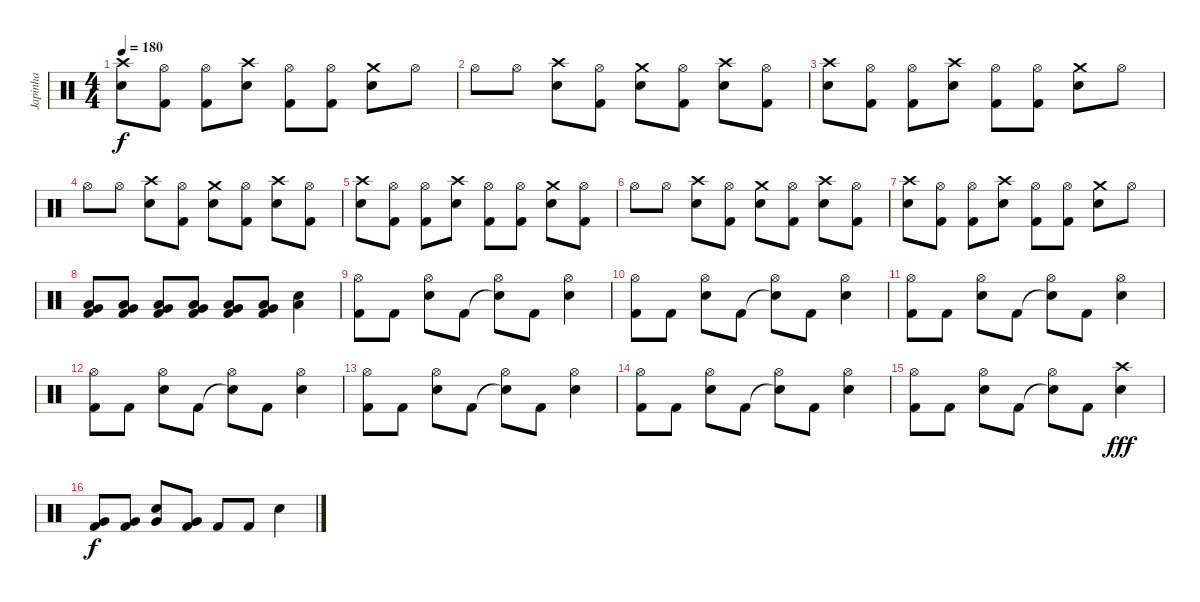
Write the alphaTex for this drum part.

\track ("Japinha" "Japinha") {instrument percussion}
\staff {score}
\articulation defaults
\ts (4 4)
\tempo 180
\clef neutral
\ks c
("Snare (hit) 2" "Crash high (hit)").8{dy f} ("Kick (hit) 2" "Hi-Hat (open)").8 ("Kick (hit) 2" "Hi-Hat (open)").8 ("Snare (hit) 2" "Crash high (hit)").8 ("Kick (hit) 2" "Hi-Hat (open)").8 ("Kick (hit) 2" "Hi-Hat (open)").8 ("Snare (hit) 2" "Crash medium (hit)").8 "Hi-Hat (open)".8 |
"Hi-Hat (open)".8 "Hi-Hat (open)".8 ("Snare (hit) 2" "Crash high (hit)").8 ("Kick (hit) 2" "Hi-Hat (open)").8 ("Snare (hit) 2" "Crash medium (hit)").8 ("Kick (hit) 2" "Hi-Hat (open)").8 ("Snare (hit) 2" "Crash high (hit)").8 ("Kick (hit) 2" "Hi-Hat (open)").8 |
("Snare (hit) 2" "Crash high (hit)").8 ("Kick (hit) 2" "Hi-Hat (open)").8 ("Kick (hit) 2" "Hi-Hat (open)").8 ("Snare (hit) 2" "Crash high (hit)").8 ("Kick (hit) 2" "Hi-Hat (open)").8 ("Kick (hit) 2" "Hi-Hat (open)").8 ("Snare (hit) 2" "Crash medium (hit)").8 "Hi-Hat (open)".8 |
"Hi-Hat (open)".8 "Hi-Hat (open)".8 ("Snare (hit) 2" "Crash high (hit)").8 ("Kick (hit) 2" "Hi-Hat (open)").8 ("Snare (hit) 2" "Crash medium (hit)").8 ("Kick (hit) 2" "Hi-Hat (open)").8 ("Snare (hit) 2" "Crash high (hit)").8 ("Kick (hit) 2" "Hi-Hat (open)").8 |
("Snare (hit) 2" "Crash high (hit)").8 ("Kick (hit) 2" "Hi-Hat (open)").8 ("Kick (hit) 2" "Hi-Hat (open)").8 ("Snare (hit) 2" "Crash high (hit)").8 ("Kick (hit) 2" "Hi-Hat (open)").8 ("Kick (hit) 2" "Hi-Hat (open)").8 ("Snare (hit) 2" "Crash medium (hit)").8 ("Kick (hit) 2" "Hi-Hat (open)").8 |
"Hi-Hat (open)".8 "Hi-Hat (open)".8 ("Snare (hit) 2" "Crash high (hit)").8 ("Kick (hit) 2" "Hi-Hat (open)").8 ("Snare (hit) 2" "Crash medium (hit)").8 ("Kick (hit) 2" "Hi-Hat (open)").8 ("Snare (hit) 2" "Crash high (hit)").8 ("Kick (hit) 2" "Hi-Hat (open)").8 |
("Snare (hit) 2" "Crash high (hit)").8 ("Kick (hit) 2" "Hi-Hat (open)").8 ("Kick (hit) 2" "Hi-Hat (open)").8 ("Snare (hit) 2" "Crash high (hit)").8 ("Kick (hit) 2" "Hi-Hat (open)").8 ("Kick (hit) 2" "Hi-Hat (open)").8 ("Snare (hit) 2" "Crash medium (hit)").8 "Hi-Hat (open)".8 |
("Kick (hit) 2" "Low Floor Tom (hit)" "Very Low Tom (hit)").8 ("Kick (hit) 2" "Low Floor Tom (hit)" "Very Low Tom (hit)").8 ("Kick (hit) 2" "Low Floor Tom (hit)" "Very Low Tom (hit)").8 ("Kick (hit) 2" "Low Floor Tom (hit)" "Very Low Tom (hit)").8 ("Kick (hit) 2" "Low Floor Tom (hit)" "Very Low Tom (hit)").8 ("Kick (hit) 2" "Low Floor Tom (hit)" "Very Low Tom (hit)").8 ("Snare (hit) 2" "Low Floor Tom (hit)").4 |
("Kick (hit) 2" "Hi-Hat (open)").8 "Kick (hit) 2".8 ("Snare (hit) 2" "Hi-Hat (open)").8 "Kick (hit) 2".8 ("Snare (hit)"{t} "Hi-Hat (open)").8 "Kick (hit) 2".8 ("Snare (hit) 2" "Hi-Hat (open)").4 |
("Kick (hit) 2" "Hi-Hat (open)").8 "Kick (hit) 2".8 ("Snare (hit) 2" "Hi-Hat (open)").8 "Kick (hit) 2".8 ("Snare (hit)"{t} "Hi-Hat (open)").8 "Kick (hit) 2".8 ("Snare (hit) 2" "Hi-Hat (open)").4 |
("Kick (hit) 2" "Hi-Hat (open)").8 "Kick (hit) 2".8 ("Snare (hit) 2" "Hi-Hat (open)").8 "Kick (hit) 2".8 ("Snare (hit)"{t} "Hi-Hat (open)").8 "Kick (hit) 2".8 ("Snare (hit) 2" "Hi-Hat (open)").4 |
("Kick (hit) 2" "Hi-Hat (open)").8 "Kick (hit) 2".8 ("Snare (hit) 2" "Hi-Hat (open)").8 "Kick (hit) 2".8 ("Snare (hit)"{t} "Hi-Hat (open)").8 "Kick (hit) 2".8 ("Snare (hit) 2" "Hi-Hat (open)").4 |
("Kick (hit) 2" "Hi-Hat (open)").8 "Kick (hit) 2".8 ("Snare (hit) 2" "Hi-Hat (open)").8 "Kick (hit) 2".8 ("Snare (hit)"{t} "Hi-Hat (open)").8 "Kick (hit) 2".8 ("Snare (hit) 2" "Hi-Hat (open)").4 |
("Kick (hit) 2" "Hi-Hat (open)").8 "Kick (hit) 2".8 ("Snare (hit) 2" "Hi-Hat (open)").8 "Kick (hit) 2".8 ("Snare (hit)"{t} "Hi-Hat (open)").8 "Kick (hit) 2".8 ("Snare (hit) 2" "Hi-Hat (open)").4 |
("Kick (hit) 2" "Hi-Hat (open)").8 "Kick (hit) 2".8 ("Snare (hit) 2" "Hi-Hat (open)").8 "Kick (hit) 2".8 ("Snare (hit)"{t} "Hi-Hat (open)").8 "Kick (hit) 2".8 ("Snare (hit) 2" "Crash high (hit)").4{dy fff} |
("Kick (hit) 2" "Very Low Tom (hit)").8{dy f} ("Kick (hit) 2" "Very Low Tom (hit)").8 ("Snare (hit) 2" "Very Low Tom (hit)").8 ("Kick (hit) 2" "Very Low Tom (hit)").8 "Kick (hit) 2".8 "Kick (hit) 2".8 "Snare (hit) 2".4
